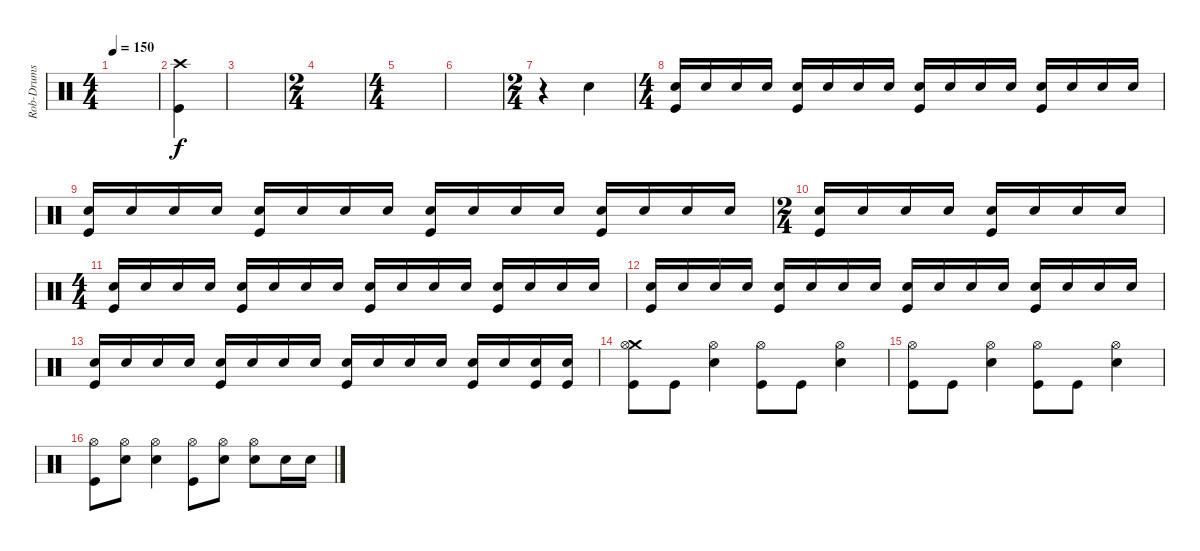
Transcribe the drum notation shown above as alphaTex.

\track ("Rob-Drums" "Rob-Drums") {instrument percussion}
\staff {score}
\articulation defaults
\ts (4 4)
\tempo 150
\clef neutral
\ks c
|
("Crash high (hit)" "Kick (hit)").4 |
|
\ts (2 4)
|
\ts (4 4)
|
|
\ts (2 4)
r.4 "Snare (hit) 2".4 |
\ts (4 4)
("Snare (hit) 2" "Kick (hit)").16{volume 6} "Snare (hit) 2".16 "Snare (hit) 2".16 "Snare (hit) 2".16 ("Snare (hit) 2" "Kick (hit)").16 "Snare (hit) 2".16 "Snare (hit) 2".16 "Snare (hit) 2".16 ("Snare (hit) 2" "Kick (hit)").16 "Snare (hit) 2".16 "Snare (hit) 2".16 "Snare (hit) 2".16 ("Snare (hit) 2" "Kick (hit)").16 "Snare (hit) 2".16 "Snare (hit) 2".16 "Snare (hit) 2".16 |
("Snare (hit) 2" "Kick (hit)").16{volume 6} "Snare (hit) 2".16 "Snare (hit) 2".16 "Snare (hit) 2".16 ("Snare (hit) 2" "Kick (hit)").16 "Snare (hit) 2".16 "Snare (hit) 2".16 "Snare (hit) 2".16 ("Snare (hit) 2" "Kick (hit)").16 "Snare (hit) 2".16 "Snare (hit) 2".16 "Snare (hit) 2".16 ("Snare (hit) 2" "Kick (hit)").16 "Snare (hit) 2".16 "Snare (hit) 2".16 "Snare (hit) 2".16 |
\ts (2 4)
("Snare (hit) 2" "Kick (hit)").16 "Snare (hit) 2".16 "Snare (hit) 2".16 "Snare (hit) 2".16 ("Snare (hit) 2" "Kick (hit)").16 "Snare (hit) 2".16 "Snare (hit) 2".16 "Snare (hit) 2".16 |
\ts (4 4)
("Snare (hit) 2" "Kick (hit)").16{volume 6} "Snare (hit) 2".16 "Snare (hit) 2".16 "Snare (hit) 2".16 ("Snare (hit) 2" "Kick (hit)").16 "Snare (hit) 2".16 "Snare (hit) 2".16 "Snare (hit) 2".16 ("Snare (hit) 2" "Kick (hit)").16 "Snare (hit) 2".16 "Snare (hit) 2".16 "Snare (hit) 2".16 ("Snare (hit) 2" "Kick (hit)").16 "Snare (hit) 2".16 "Snare (hit) 2".16 "Snare (hit) 2".16 |
("Snare (hit) 2" "Kick (hit)").16{volume 6} "Snare (hit) 2".16 "Snare (hit) 2".16 "Snare (hit) 2".16 ("Snare (hit) 2" "Kick (hit)").16 "Snare (hit) 2".16 "Snare (hit) 2".16 "Snare (hit) 2".16 ("Snare (hit) 2" "Kick (hit)").16 "Snare (hit) 2".16 "Snare (hit) 2".16 "Snare (hit) 2".16 ("Snare (hit) 2" "Kick (hit)").16 "Snare (hit) 2".16 "Snare (hit) 2".16 "Snare (hit) 2".16 |
("Snare (hit) 2" "Kick (hit)").16{volume 13} "Snare (hit) 2".16 "Snare (hit) 2".16 "Snare (hit) 2".16 ("Snare (hit) 2" "Kick (hit)").16 "Snare (hit) 2".16 "Snare (hit) 2".16 "Snare (hit) 2".16 ("Snare (hit) 2" "Kick (hit)").16 "Snare (hit) 2".16 "Snare (hit) 2".16 "Snare (hit) 2".16 ("Snare (hit) 2" "Kick (hit)").16 "Snare (hit) 2".16 ("Snare (hit) 2" "Kick (hit)").16 ("Snare (hit) 2" "Kick (hit)").16 |
("Crash medium (hit)" "Hi-Hat (open)" "Kick (hit)").8 "Kick (hit)".8 ("Hi-Hat (open)" "Snare (hit) 2").4 ("Hi-Hat (open)" "Kick (hit)").8 "Kick (hit)".8 ("Hi-Hat (open)" "Snare (hit) 2").4 |
("Hi-Hat (open)" "Kick (hit)").8 "Kick (hit)".8 ("Hi-Hat (open)" "Snare (hit) 2").4 ("Hi-Hat (open)" "Kick (hit)").8 "Kick (hit)".8 ("Hi-Hat (open)" "Snare (hit) 2").4 |
("Hi-Hat (open)" "Kick (hit)").8 ("Hi-Hat (open)" "Snare (hit) 2").8 ("Hi-Hat (open)" "Snare (hit) 2").4 ("Hi-Hat (open)" "Kick (hit)").8 ("Hi-Hat (open)" "Snare (hit) 2").8 ("Hi-Hat (open)" "Snare (hit) 2").8 "Snare (hit) 2".16 "Snare (hit) 2".16
